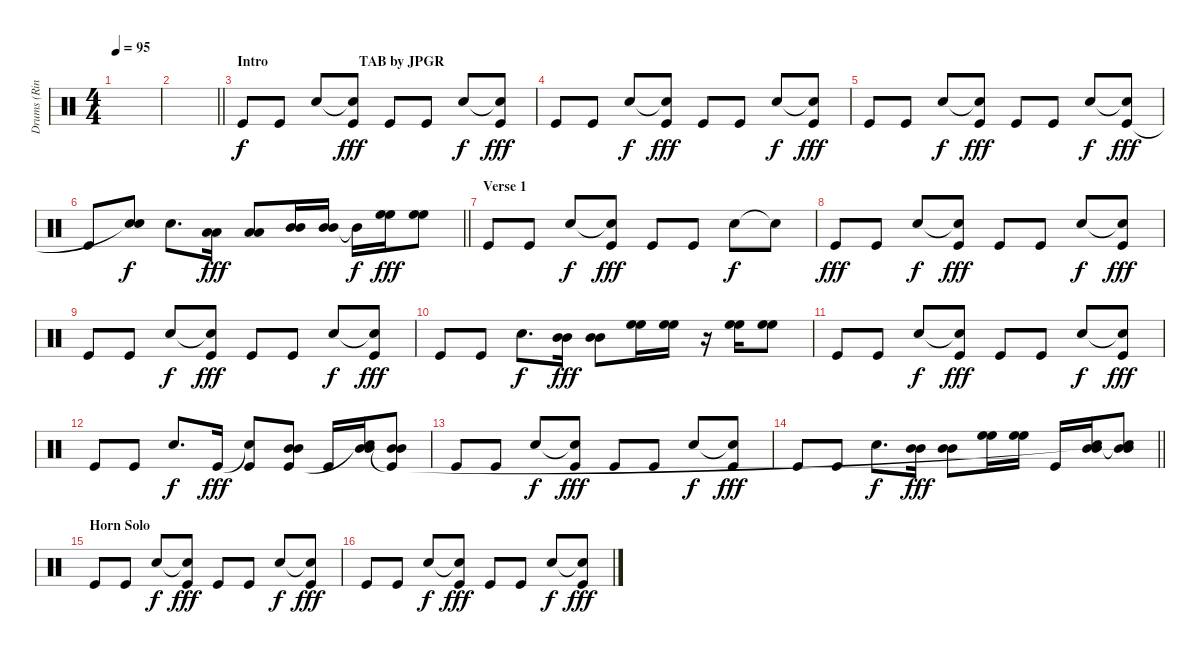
\track ("Drums (Ringo Starr)" "Drums (Rin") {instrument percussion}
\staff {score}
\articulation defaults
\ts (4 4)
\tempo 95
\clef neutral
\ks c
|
\barLineRight lightlight
|
\section ("" "Intro                          TAB by JPGR")
"Kick (hit)".8 "Kick (hit)".8 "Electric Snare (hit)".8{dy f} ("Snare (hit)"{t} "Kick (hit)").8{dy fff} "Kick (hit)".8 "Kick (hit)".8 "Electric Snare (hit)".8{dy f} ("Snare (hit)"{t} "Kick (hit)").8{dy fff} |
"Kick (hit)".8 "Kick (hit)".8 "Electric Snare (hit)".8{dy f} ("Snare (hit)"{t} "Kick (hit)").8{dy fff} "Kick (hit)".8 "Kick (hit)".8 "Electric Snare (hit)".8{dy f} ("Snare (hit)"{t} "Kick (hit)").8{dy fff} |
"Kick (hit)".8 "Kick (hit)".8 "Electric Snare (hit)".8{dy f} ("Snare (hit)"{t} "Kick (hit)").8{dy fff} "Kick (hit)".8 "Kick (hit)".8 "Electric Snare (hit)".8{dy f} ("Snare (hit)"{t} "Kick (hit)").8{dy fff} |
\barLineRight lightlight "Kick (hit)".8
("Electric Snare (hit)" "Snare (hit)"{t}).8{dy f} "Electric Snare (hit)".8{d} ("Low Tom (hit)" "Low Tom (hit)").16{dy fff} ("Low Tom (hit)" "Low Tom (hit)").8 ("Mid Tom (hit)" "Mid Tom (hit)").16 ("Mid Tom (hit)" "Mid Tom (hit)").16 "Mid Tom (hit)"{t}.16{dy f} ("High Floor Tom (hit)" "High Floor Tom (hit)").16{dy fff} ("High Floor Tom (hit)" "High Floor Tom (hit)").8 |
\section ("" "Verse 1")
"Kick (hit)".8 "Kick (hit)".8 "Electric Snare (hit)".8{dy f} ("Snare (hit)"{t} "Kick (hit)").8{dy fff} "Kick (hit)".8 "Kick (hit)".8 "Electric Snare (hit)".8{dy f} "Snare (hit)"{t}.8 |
"Kick (hit)".8{dy fff} "Kick (hit)".8 "Electric Snare (hit)".8{dy f} ("Snare (hit)"{t} "Kick (hit)").8{dy fff} "Kick (hit)".8 "Kick (hit)".8 "Electric Snare (hit)".8{dy f} ("Snare (hit)"{t} "Kick (hit)").8{dy fff} |
"Kick (hit)".8 "Kick (hit)".8 "Electric Snare (hit)".8{dy f} ("Snare (hit)"{t} "Kick (hit)").8{dy fff} "Kick (hit)".8 "Kick (hit)".8 "Electric Snare (hit)".8{dy f} ("Snare (hit)"{t} "Kick (hit)").8{dy fff} |
"Kick (hit)".8 "Kick (hit)".8 "Electric Snare (hit)".8{d dy f} ("Mid Tom (hit)" "Mid Tom (hit)").16{dy fff} ("Mid Tom (hit)" "Mid Tom (hit)").8 ("High Floor Tom (hit)" "High Floor Tom (hit)").16 ("High Floor Tom (hit)" "High Floor Tom (hit)").16 r.16 ("High Floor Tom (hit)" "High Floor Tom (hit)").16 ("High Floor Tom (hit)" "High Floor Tom (hit)").8 |
"Kick (hit)".8 "Kick (hit)".8 "Electric Snare (hit)".8{dy f} ("Snare (hit)"{t} "Kick (hit)").8{dy fff} "Kick (hit)".8 "Kick (hit)".8 "Electric Snare (hit)".8{dy f} ("Snare (hit)"{t} "Kick (hit)").8{dy fff} |
"Kick (hit)".8 "Kick (hit)".8 "Electric Snare (hit)".8{d dy f} "Kick (hit)".16{dy fff} ("Snare (hit)"{t} "Kick (hit)").8 ("Mid Tom (hit)" "Mid Tom (hit)" "Kick (hit)").8 "Kick (hit)".16 ("Mid Tom (hit)" "Mid Tom (hit)" "Snare (hit)"{t}).16 ("Mid Tom (hit)" "Mid Tom (hit)" "Kick (hit)"{t}).8 |
"Kick (hit)".8 "Kick (hit)".8 "Electric Snare (hit)".8{dy f} ("Snare (hit)"{t} "Kick (hit)").8{dy fff} "Kick (hit)".8 "Kick (hit)".8 "Electric Snare (hit)".8{dy f} ("Snare (hit)"{t} "Kick (hit)").8{dy fff} |
\barLineRight lightlight "Kick (hit)".8 "Kick (hit)".8 "Electric Snare (hit)".8{d dy f}
("Mid Tom (hit)" "Mid Tom (hit)").16{dy fff} ("Mid Tom (hit)" "Mid Tom (hit)").8 ("High Floor Tom (hit)" "High Floor Tom (hit)").16 ("High Floor Tom (hit)" "High Floor Tom (hit)").16 "Kick (hit)".16 ("Mid Tom (hit)" "Mid Tom (hit)" "Snare (hit)"{t}).16 ("Mid Tom (hit)" "Mid Tom (hit)" "Snare (hit)"{t}).8 |
\section ("" "Horn Solo")
"Kick (hit)".8 "Kick (hit)".8 "Electric Snare (hit)".8{dy f} ("Snare (hit)"{t} "Kick (hit)").8{dy fff} "Kick (hit)".8 "Kick (hit)".8 "Electric Snare (hit)".8{dy f} ("Snare (hit)"{t} "Kick (hit)").8{dy fff} |
"Kick (hit)".8 "Kick (hit)".8 "Electric Snare (hit)".8{dy f} ("Snare (hit)"{t} "Kick (hit)").8{dy fff} "Kick (hit)".8 "Kick (hit)".8 "Electric Snare (hit)".8{dy f} ("Snare (hit)"{t} "Kick (hit)").8{dy fff}
